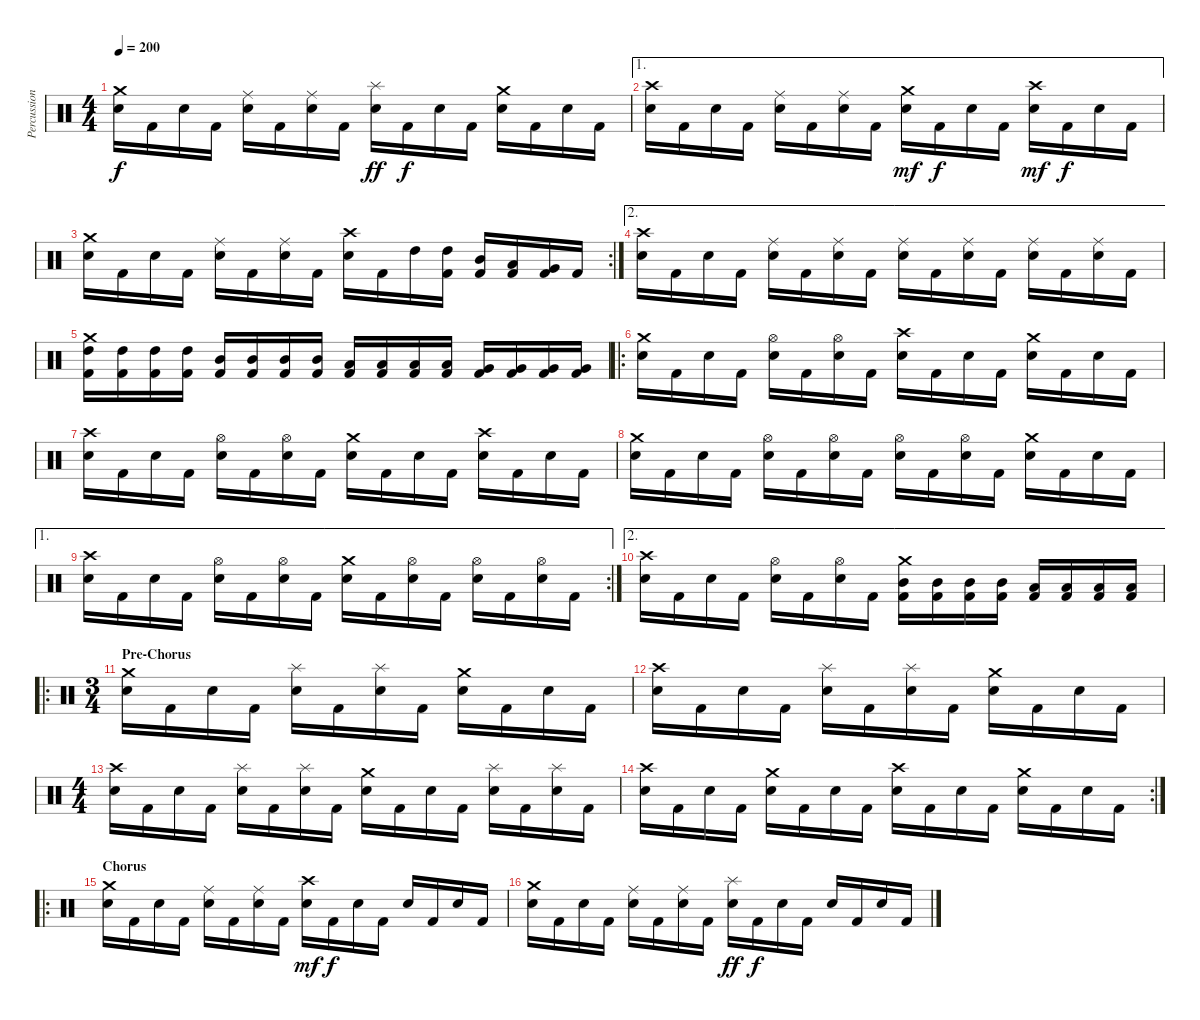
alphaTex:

\track ("Percussion" "Percussion") {instrument percussion}
\staff {score}
\articulation defaults
\ts (4 4)
\tempo 200
\clef neutral
\ks c
("Snare (hit) 2" "Crash medium (hit)").16{dy f} "Kick (hit) 2".16 "Snare (hit) 2".16 "Kick (hit) 2".16 ("Snare (hit) 2" "Ride (middle)").16 "Kick (hit) 2".16 ("Snare (hit) 2" "Ride (middle)").16 "Kick (hit) 2".16 ("Snare (hit) 2" "Splash (hit)").16{dy ff} "Kick (hit) 2".16{dy f} "Snare (hit) 2".16 "Kick (hit) 2".16 ("Snare (hit) 2" "Crash medium (hit)").16 "Kick (hit) 2".16 "Snare (hit) 2".16 "Kick (hit) 2".16 |
\ae 1
("Snare (hit) 2" "Crash high (hit)").16 "Kick (hit) 2".16 "Snare (hit) 2".16 "Kick (hit) 2".16 ("Snare (hit) 2" "Ride (middle)").16 "Kick (hit) 2".16 ("Snare (hit) 2" "Ride (middle)").16 "Kick (hit) 2".16 ("Snare (hit) 2" "Crash medium (hit)").16{dy mf} "Kick (hit) 2".16{dy f} "Snare (hit) 2".16 "Kick (hit) 2".16 ("Snare (hit) 2" "Crash high (hit)").16{dy mf} "Kick (hit) 2".16{dy f} "Snare (hit) 2".16 "Kick (hit) 2".16 |
\rc 2
("Snare (hit) 2" "Crash medium (hit)").16 "Kick (hit) 2".16 "Snare (hit) 2".16 "Kick (hit) 2".16 ("Snare (hit) 2" "Ride (middle)").16 "Kick (hit) 2".16 ("Snare (hit) 2" "Ride (middle)").16 "Kick (hit) 2".16 ("Snare (hit) 2" "Crash high (hit)").16 "Kick (hit) 2".16 "High Tom (hit)".16 ("Kick (hit) 2" "High Tom (hit)").16 ("Kick (hit) 2" "Mid Tom (hit)").16 ("Kick (hit) 2" "Low Tom (hit)").16 ("Kick (hit) 2" "Very Low Tom (hit)").16 "Kick (hit) 2".16 |
\ae 2
("Snare (hit) 2" "Crash high (hit)").16 "Kick (hit) 2".16 "Snare (hit) 2".16 "Kick (hit) 2".16 ("Snare (hit) 2" "Ride (middle)").16 "Kick (hit) 2".16 ("Snare (hit) 2" "Ride (middle)").16 "Kick (hit) 2".16 ("Snare (hit) 2" "Ride (middle)").16 "Kick (hit) 2".16 ("Snare (hit) 2" "Ride (middle)").16 "Kick (hit) 2".16 ("Snare (hit) 2" "Ride (middle)").16 "Kick (hit) 2".16 ("Snare (hit) 2" "Ride (middle)").16 "Kick (hit) 2".16 |
("Kick (hit) 2" "High Tom (hit)" "Crash medium (hit)").16 ("Kick (hit) 2" "High Tom (hit)").16 ("Kick (hit) 2" "High Tom (hit)").16 ("Kick (hit) 2" "High Tom (hit)").16 ("Kick (hit) 2" "Mid Tom (hit)").16 ("Kick (hit) 2" "Mid Tom (hit)").16 ("Kick (hit) 2" "Mid Tom (hit)").16 ("Kick (hit) 2" "Mid Tom (hit)").16 ("Kick (hit) 2" "Low Tom (hit)").16 ("Kick (hit) 2" "Low Tom (hit)").16 ("Kick (hit) 2" "Low Tom (hit)").16 ("Kick (hit) 2" "Low Tom (hit)").16 ("Kick (hit) 2" "Very Low Tom (hit)").16 ("Kick (hit) 2" "Very Low Tom (hit)").16 ("Kick (hit) 2" "Very Low Tom (hit)").16 ("Kick (hit) 2" "Very Low Tom (hit)").16 |
\ro
("Snare (hit) 2" "Crash medium (hit)").16 "Kick (hit) 2".16 "Snare (hit) 2".16 "Kick (hit) 2".16 ("Snare (hit) 2" "Hi-Hat (open)").16 "Kick (hit) 2".16 ("Snare (hit) 2" "Hi-Hat (open)").16 "Kick (hit) 2".16 ("Snare (hit) 2" "Crash high (hit)").16 "Kick (hit) 2".16 "Snare (hit) 2".16 "Kick (hit) 2".16 ("Snare (hit) 2" "Crash medium (hit)").16 "Kick (hit) 2".16 "Snare (hit) 2".16 "Kick (hit) 2".16 |
("Snare (hit) 2" "Crash high (hit)").16 "Kick (hit) 2".16 "Snare (hit) 2".16 "Kick (hit) 2".16 ("Snare (hit) 2" "Hi-Hat (open)").16 "Kick (hit) 2".16 ("Snare (hit) 2" "Hi-Hat (open)").16 "Kick (hit) 2".16 ("Snare (hit) 2" "Crash medium (hit)").16 "Kick (hit) 2".16 "Snare (hit) 2".16 "Kick (hit) 2".16 ("Snare (hit) 2" "Crash high (hit)").16 "Kick (hit) 2".16 "Snare (hit) 2".16 "Kick (hit) 2".16 |
("Snare (hit) 2" "Crash medium (hit)").16 "Kick (hit) 2".16 "Snare (hit) 2".16 "Kick (hit) 2".16 ("Snare (hit) 2" "Hi-Hat (open)").16 "Kick (hit) 2".16 ("Snare (hit) 2" "Hi-Hat (open)").16 "Kick (hit) 2".16 ("Snare (hit) 2" "Hi-Hat (open)").16 "Kick (hit) 2".16 ("Snare (hit) 2" "Hi-Hat (open)").16 "Kick (hit) 2".16 ("Snare (hit) 2" "Crash medium (hit)").16 "Kick (hit) 2".16 "Snare (hit) 2".16 "Kick (hit) 2".16 |
\ae 1
\rc 2
("Snare (hit) 2" "Crash high (hit)").16 "Kick (hit) 2".16 "Snare (hit) 2".16 "Kick (hit) 2".16 ("Snare (hit) 2" "Hi-Hat (open)").16 "Kick (hit) 2".16 ("Snare (hit) 2" "Hi-Hat (open)").16 "Kick (hit) 2".16 ("Snare (hit) 2" "Crash medium (hit)").16 "Kick (hit) 2".16 ("Snare (hit) 2" "Hi-Hat (open)").16 "Kick (hit) 2".16 ("Snare (hit) 2" "Hi-Hat (open)").16 "Kick (hit) 2".16 ("Snare (hit) 2" "Hi-Hat (open)").16 "Kick (hit) 2".16 |
\ae 2
("Snare (hit) 2" "Crash high (hit)").16 "Kick (hit) 2".16 "Snare (hit) 2".16 "Kick (hit) 2".16 ("Snare (hit) 2" "Hi-Hat (open)").16 "Kick (hit) 2".16 ("Snare (hit) 2" "Hi-Hat (open)").16 "Kick (hit) 2".16 ("Kick (hit) 2" "Mid Tom (hit)" "Crash medium (hit)").16 ("Kick (hit) 2" "Mid Tom (hit)").16 ("Kick (hit) 2" "Mid Tom (hit)").16 ("Kick (hit) 2" "Mid Tom (hit)").16 ("Kick (hit) 2" "Low Tom (hit)").16 ("Kick (hit) 2" "Low Tom (hit)").16 ("Kick (hit) 2" "Low Tom (hit)").16 ("Kick (hit) 2" "Low Tom (hit)").16 |
\ro
\ts (3 4)
\section ("" "Pre-Chorus")
("Snare (hit) 2" "Crash medium (hit)").16 "Kick (hit) 2".16 "Snare (hit) 2".16 "Kick (hit) 2".16 ("Snare (hit) 2" "Splash (hit)").16 "Kick (hit) 2".16 ("Snare (hit) 2" "Splash (hit)").16 "Kick (hit) 2".16 ("Snare (hit) 2" "Crash medium (hit)").16 "Kick (hit) 2".16 "Snare (hit) 2".16 "Kick (hit) 2".16 |
("Snare (hit) 2" "Crash high (hit)").16 "Kick (hit) 2".16 "Snare (hit) 2".16 "Kick (hit) 2".16 ("Snare (hit) 2" "Splash (hit)").16 "Kick (hit) 2".16 ("Snare (hit) 2" "Splash (hit)").16 "Kick (hit) 2".16 ("Snare (hit) 2" "Crash medium (hit)").16 "Kick (hit) 2".16 "Snare (hit) 2".16 "Kick (hit) 2".16 |
\ts (4 4)
("Snare (hit) 2" "Crash high (hit)").16 "Kick (hit) 2".16 "Snare (hit) 2".16 "Kick (hit) 2".16 ("Snare (hit) 2" "Splash (hit)").16 "Kick (hit) 2".16 ("Snare (hit) 2" "Splash (hit)").16 "Kick (hit) 2".16 ("Snare (hit) 2" "Crash medium (hit)").16 "Kick (hit) 2".16 "Snare (hit) 2".16 "Kick (hit) 2".16 ("Snare (hit) 2" "Splash (hit)").16 "Kick (hit) 2".16 ("Snare (hit) 2" "Splash (hit)").16 "Kick (hit) 2".16 |
\rc 2
("Snare (hit) 2" "Crash high (hit)").16 "Kick (hit) 2".16 "Snare (hit) 2".16 "Kick (hit) 2".16 ("Snare (hit) 2" "Crash medium (hit)").16 "Kick (hit) 2".16 "Snare (hit) 2".16 "Kick (hit) 2".16 ("Snare (hit) 2" "Crash high (hit)").16 "Kick (hit) 2".16 "Snare (hit) 2".16 "Kick (hit) 2".16 ("Snare (hit) 2" "Crash medium (hit)").16 "Kick (hit) 2".16 "Snare (hit) 2".16 "Kick (hit) 2".16 |
\ro
\section ("" "Chorus")
("Snare (hit) 2" "Crash medium (hit)").16 "Kick (hit) 2".16 "Snare (hit) 2".16 "Kick (hit) 2".16 ("Snare (hit) 2" "Ride (middle)").16 "Kick (hit) 2".16 ("Snare (hit) 2" "Ride (middle)").16 "Kick (hit) 2".16 ("Snare (hit) 2" "Crash high (hit)").16{dy mf} "Kick (hit) 2".16{dy f} "Snare (hit) 2".16 "Kick (hit) 2".16 "Snare (hit) 2".16 "Kick (hit) 2".16 "Snare (hit) 2".16 "Kick (hit) 2".16 |
("Snare (hit) 2" "Crash medium (hit)").16 "Kick (hit) 2".16 "Snare (hit) 2".16 "Kick (hit) 2".16 ("Snare (hit) 2" "Ride (middle)").16 "Kick (hit) 2".16 ("Snare (hit) 2" "Ride (middle)").16 "Kick (hit) 2".16 ("Snare (hit) 2" "Splash (hit)").16{dy ff} "Kick (hit) 2".16{dy f} "Snare (hit) 2".16 "Kick (hit) 2".16 "Snare (hit) 2".16 "Kick (hit) 2".16 "Snare (hit) 2".16 "Kick (hit) 2".16
